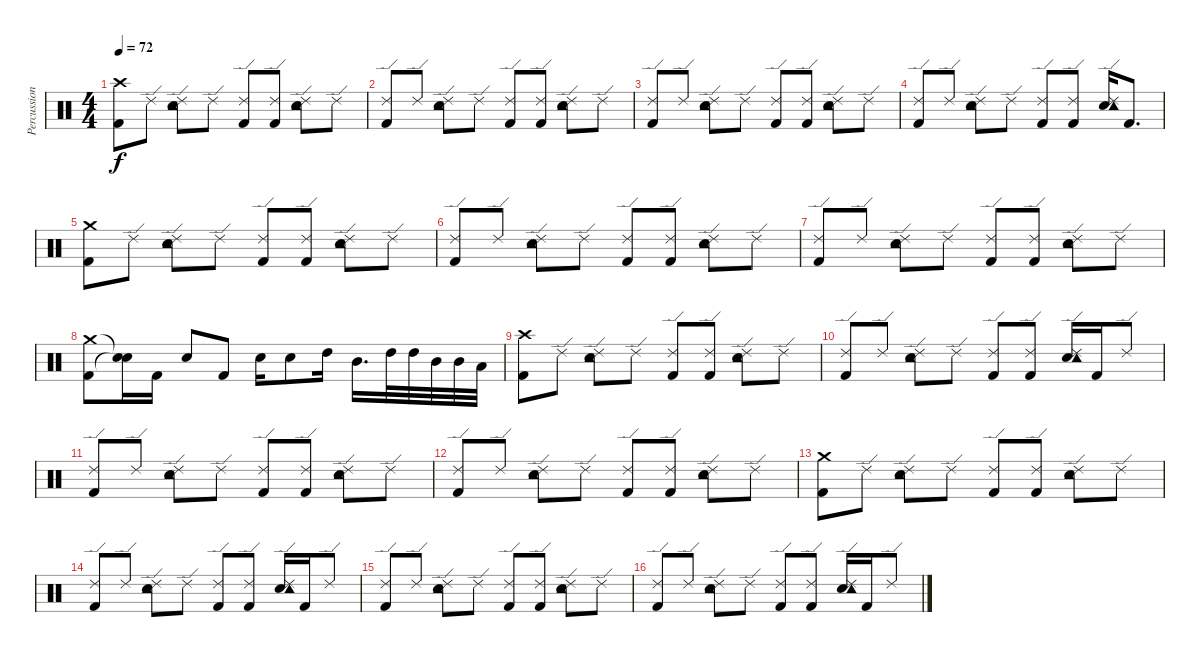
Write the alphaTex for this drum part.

\track ("Percussion" "Percussion") {instrument percussion}
\staff {score}
\articulation defaults
\ts (4 4)
\tempo 72
\clef neutral
\ks c
("Crash high (hit)" "Kick (hit) 2").8{dy f} "Ride (edge) 2".8 ("Ride (edge) 2" "Snare (hit) 2" "Tambourine (hit)").8 "Ride (edge) 2".8 ("Ride (edge) 2" "Kick (hit) 2").8 ("Ride (edge) 2" "Kick (hit) 2").8 ("Ride (edge) 2" "Snare (hit) 2" "Tambourine (hit)").8 "Ride (edge) 2".8 |
("Ride (edge) 2" "Kick (hit) 2").8 "Ride (edge) 2".8 ("Ride (edge) 2" "Snare (hit) 2" "Tambourine (hit)").8 "Ride (edge) 2".8 ("Ride (edge) 2" "Kick (hit) 2").8 ("Ride (edge) 2" "Kick (hit) 2").8 ("Ride (edge) 2" "Snare (hit) 2" "Tambourine (hit)").8 "Ride (edge) 2".8 |
("Ride (edge) 2" "Kick (hit) 2").8 "Ride (edge) 2".8 ("Ride (edge) 2" "Snare (hit) 2" "Tambourine (hit)").8 "Ride (edge) 2".8 ("Ride (edge) 2" "Kick (hit) 2").8 ("Ride (edge) 2" "Kick (hit) 2").8 ("Ride (edge) 2" "Snare (hit) 2" "Tambourine (hit)").8 "Ride (edge) 2".8 |
("Ride (edge) 2" "Kick (hit) 2").8 "Ride (edge) 2".8 ("Ride (edge) 2" "Snare (hit) 2" "Tambourine (hit)").8 "Ride (edge) 2".8 ("Ride (edge) 2" "Kick (hit) 2").8 ("Ride (edge) 2" "Kick (hit) 2").8 ("Ride (edge) 2" "Snare (hit) 2" "Tambourine (hit)").16 "Kick (hit) 2".8{d} |
("Crash medium (hit)" "Kick (hit) 2").8 "Ride (edge) 2".8 ("Ride (edge) 2" "Snare (hit) 2" "Tambourine (hit)").8 "Ride (edge) 2".8 ("Ride (edge) 2" "Kick (hit) 2").8 ("Ride (edge) 2" "Kick (hit) 2").8 ("Ride (edge) 2" "Snare (hit) 2" "Tambourine (hit)").8 "Ride (edge) 2".8 |
("Ride (edge) 2" "Kick (hit) 2").8 "Ride (edge) 2".8 ("Ride (edge) 2" "Snare (hit) 2" "Tambourine (hit)").8 "Ride (edge) 2".8 ("Ride (edge) 2" "Kick (hit) 2").8 ("Ride (edge) 2" "Kick (hit) 2").8 ("Ride (edge) 2" "Snare (hit) 2" "Tambourine (hit)").8 "Ride (edge) 2".8 |
("Ride (edge) 2" "Kick (hit) 2").8 "Ride (edge) 2".8 ("Ride (edge) 2" "Snare (hit) 2" "Tambourine (hit)").8 "Ride (edge) 2".8 ("Ride (edge) 2" "Kick (hit) 2").8 ("Ride (edge) 2" "Kick (hit) 2").8 ("Ride (edge) 2" "Snare (hit) 2" "Tambourine (hit)").8 "Ride (edge) 2".8 |
("Crash medium (hit)" "Kick (hit) 2").8 ("Snare (hit)"{t} "Snare (hit)"{t}).16 "Kick (hit) 2".16 "Snare (hit) 2".8 "Kick (hit) 2".8 "Snare (hit) 2".16 "Snare (hit) 2".8 "High Tom (hit)".16 "Mid Tom (hit)".16{d} "High Tom (hit)".32 "High Tom (hit)".32 "Mid Tom (hit)".32 "Mid Tom (hit)".32 "Low Tom (hit)".32 |
("Crash high (hit)" "Kick (hit) 2").8 "Ride (edge) 2".8 ("Ride (edge) 2" "Snare (hit) 2" "Tambourine (hit)").8 "Ride (edge) 2".8 ("Ride (edge) 2" "Kick (hit) 2").8 ("Ride (edge) 2" "Kick (hit) 2").8 ("Ride (edge) 2" "Snare (hit) 2" "Tambourine (hit)").8 "Ride (edge) 2".8 |
("Ride (edge) 2" "Kick (hit) 2").8 "Ride (edge) 2".8 ("Ride (edge) 2" "Snare (hit) 2" "Tambourine (hit)").8 "Ride (edge) 2".8 ("Ride (edge) 2" "Kick (hit) 2").8 ("Ride (edge) 2" "Kick (hit) 2").8 ("Ride (edge) 2" "Snare (hit) 2" "Tambourine (hit)").16 "Kick (hit) 2".16 "Ride (edge) 2".8 |
("Ride (edge) 2" "Kick (hit) 2").8 "Ride (edge) 2".8 ("Ride (edge) 2" "Snare (hit) 2" "Tambourine (hit)").8 "Ride (edge) 2".8 ("Ride (edge) 2" "Kick (hit) 2").8 ("Ride (edge) 2" "Kick (hit) 2").8 ("Ride (edge) 2" "Snare (hit) 2" "Tambourine (hit)").8 "Ride (edge) 2".8 |
("Ride (edge) 2" "Kick (hit) 2").8 "Ride (edge) 2".8 ("Ride (edge) 2" "Snare (hit) 2" "Tambourine (hit)").8 "Ride (edge) 2".8 ("Ride (edge) 2" "Kick (hit) 2").8 ("Ride (edge) 2" "Kick (hit) 2").8 ("Ride (edge) 2" "Snare (hit) 2" "Tambourine (hit)").8 "Ride (edge) 2".8 |
("Crash medium (hit)" "Kick (hit) 2").8 "Ride (edge) 2".8 ("Ride (edge) 2" "Snare (hit) 2" "Tambourine (hit)").8 "Ride (edge) 2".8 ("Ride (edge) 2" "Kick (hit) 2").8 ("Ride (edge) 2" "Kick (hit) 2").8 ("Ride (edge) 2" "Snare (hit) 2" "Tambourine (hit)").8 "Ride (edge) 2".8 |
("Ride (edge) 2" "Kick (hit) 2").8 "Ride (edge) 2".8 ("Ride (edge) 2" "Snare (hit) 2" "Tambourine (hit)").8 "Ride (edge) 2".8 ("Ride (edge) 2" "Kick (hit) 2").8 ("Ride (edge) 2" "Kick (hit) 2").8 ("Ride (edge) 2" "Snare (hit) 2" "Tambourine (hit)").16 "Kick (hit) 2".16 "Ride (edge) 2".8 |
("Ride (edge) 2" "Kick (hit) 2").8 "Ride (edge) 2".8 ("Ride (edge) 2" "Snare (hit) 2" "Tambourine (hit)").8 "Ride (edge) 2".8 ("Ride (edge) 2" "Kick (hit) 2").8 ("Ride (edge) 2" "Kick (hit) 2").8 ("Ride (edge) 2" "Snare (hit) 2" "Tambourine (hit)").8 "Ride (edge) 2".8 |
("Ride (edge) 2" "Kick (hit) 2").8 "Ride (edge) 2".8 ("Ride (edge) 2" "Snare (hit) 2" "Tambourine (hit)").8 "Ride (edge) 2".8 ("Ride (edge) 2" "Kick (hit) 2").8 ("Ride (edge) 2" "Kick (hit) 2").8 ("Ride (edge) 2" "Snare (hit) 2" "Tambourine (hit)").16 "Kick (hit) 2".16 "Ride (edge) 2".8
